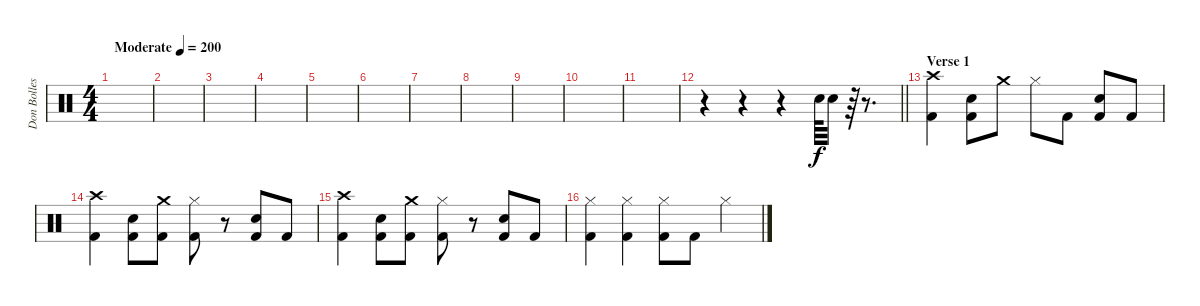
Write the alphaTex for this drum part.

\track ("Don Bolles" "Don Bolles") {instrument percussion}
\staff {score}
\articulation defaults
\ts (4 4)
\tempo (200 "Moderate")
\clef neutral
\ks c
|
|
|
|
|
|
|
|
|
|
|
\barLineRight lightlight
r.4 r.4 r.4 "Snare (hit) 2".64 "Snare (hit) 2".32 r.64 r.8{d} |
\section ("" "Verse 1")
("Kick (hit) 2" "Crash high (hit)").4 ("Snare (hit) 2" "Kick (hit) 2").8 "Crash medium (hit)".8 "Hi-Hat (closed)".8 "Kick (hit) 2".8 ("Kick (hit) 2" "Snare (hit) 2").8 "Kick (hit) 2".8 |
("Kick (hit) 2" "Crash high (hit)").4 ("Snare (hit) 2" "Kick (hit) 2").8 ("Kick (hit) 2" "Crash medium (hit)").8 ("Kick (hit) 2" "Hi-Hat (closed)").8 r.8 ("Kick (hit) 2" "Snare (hit) 2").8 "Kick (hit) 2".8 |
("Kick (hit) 2" "Crash high (hit)").4 ("Snare (hit) 2" "Kick (hit) 2").8 ("Kick (hit) 2" "Crash medium (hit)").8 ("Kick (hit) 2" "Hi-Hat (closed)").8 r.8 ("Kick (hit) 2" "Snare (hit) 2").8 "Kick (hit) 2".8 |
("Kick (hit) 2" "Hi-Hat (closed)").4 ("Kick (hit) 2" "Hi-Hat (closed)").4 ("Kick (hit) 2" "Hi-Hat (closed)").8 "Kick (hit) 2".8 "Hi-Hat (closed)".4
